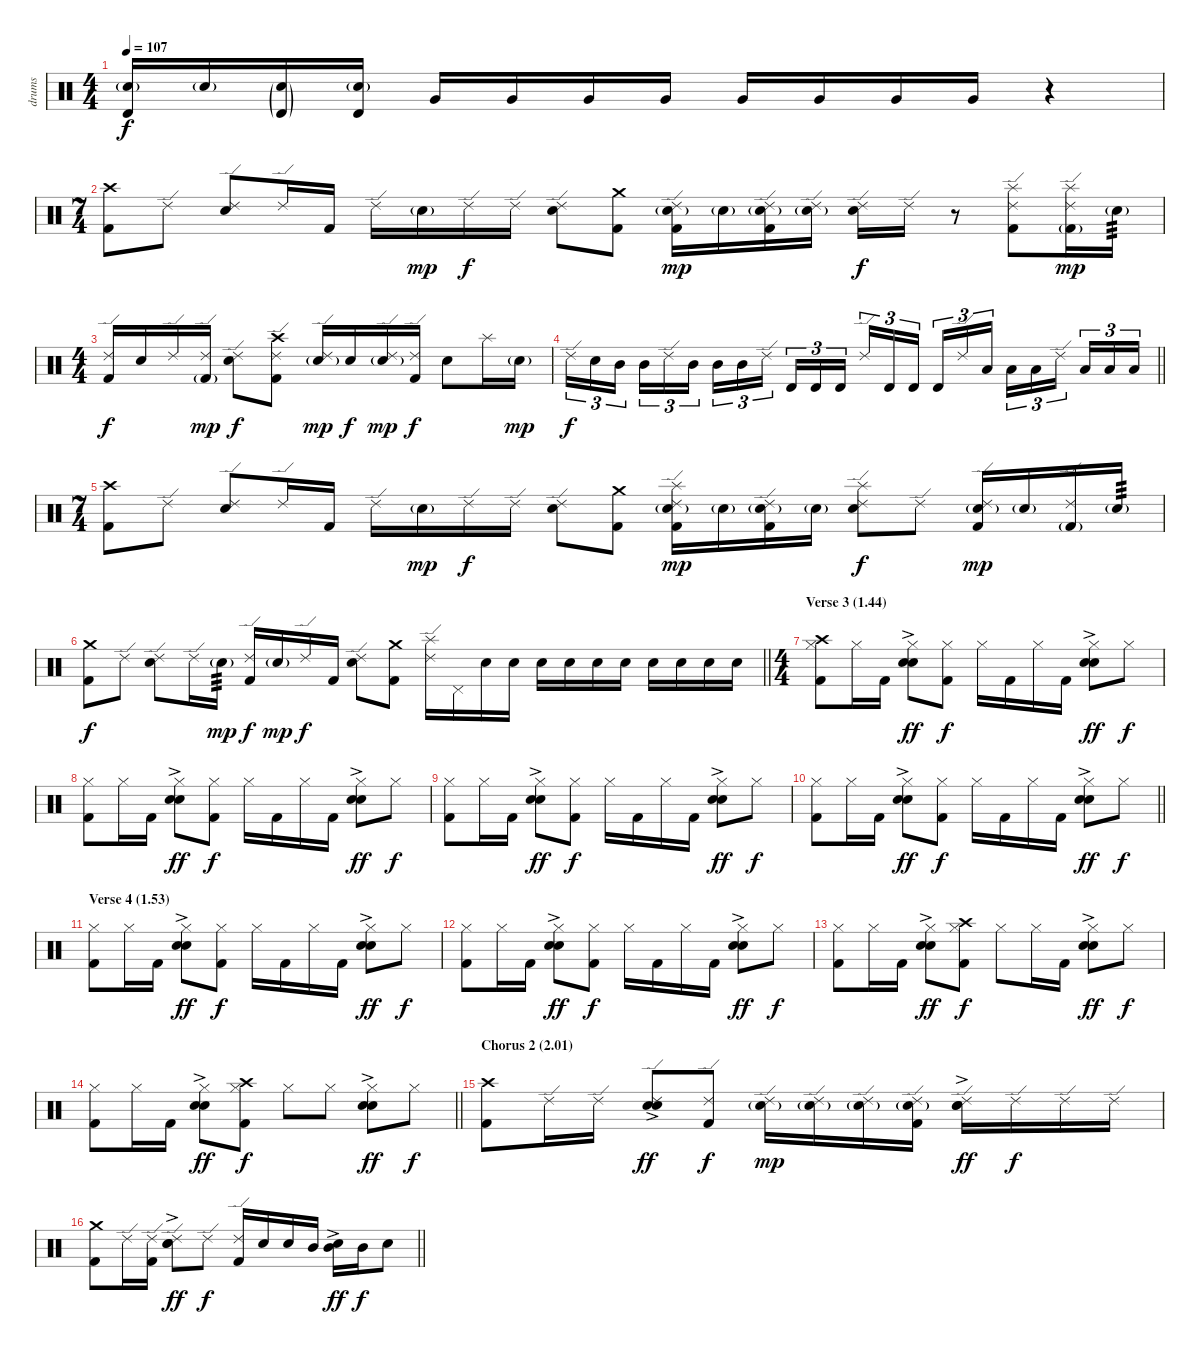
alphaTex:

\track ("drums" "drums") {instrument percussion}
\staff {score}
\articulation defaults
\ts (4 4)
\tempo 107
\clef neutral
\ks c
("Timbale high (hit)" "Electric Snare (hit)"{g}).16{dy f} "Electric Snare (hit)"{g}.16 ("Timbale high (hit)"{g} "Electric Snare (hit)"{g}).16 ("Timbale high (hit)" "Electric Snare (hit)"{g}).16 "Very Low Tom (hit)".16 "Very Low Tom (hit)".16 "Very Low Tom (hit)".16 "Very Low Tom (hit)".16 "Very Low Tom (hit)".16 "Very Low Tom (hit)".16 "Very Low Tom (hit)".16 "Very Low Tom (hit)".16 r.4 |
\ts (7 4)
("Crash high (hit)" "Kick (hit) 2").8 "Ride (edge) 2".8 ("Ride (edge) 2" "Electric Snare (hit)").8 "Ride (edge) 2".16 "Kick (hit) 2".16 "Ride (edge) 2".16 "Electric Snare (hit)"{g}.16{dy mp} "Ride (edge) 2".16{dy f} "Ride (edge) 2".16 ("Ride (edge) 2" "Electric Snare (hit)").8 ("Crash medium (hit)" "Kick (hit) 2").8 ("Ride (edge) 2" "Electric Snare (hit)"{g} "Kick (hit) 2").16{dy mp} "Electric Snare (hit)"{g}.16 ("Ride (edge) 2" "Electric Snare (hit)"{g} "Kick (hit) 2").16 ("Ride (edge) 2" "Electric Snare (hit)"{g}).16 ("Ride (edge) 2" "Electric Snare (hit)").16{dy f} "Ride (edge) 2".16 r.8 ("Ride (edge) 2" "Splash (hit)" "Kick (hit) 2").8 ("Ride (edge) 2" "Splash (hit)" "Kick (hit) 2"{g}).16{dy mp} "Electric Snare (hit)"{g}.16{tp 3} |
\ts (4 4)
("Ride (edge) 2" "Kick (hit) 2").16{dy f} "Electric Snare (hit)".16 "Ride (edge) 2".16 ("Ride (edge) 2" "Kick (hit) 2"{g}).16{dy mp} ("Ride (edge) 2" "Electric Snare (hit)").8{dy f} ("Ride (edge) 2" "Crash high (hit)" "Kick (hit) 2").8 ("Ride (edge) 2" "Electric Snare (hit)"{g}).16{dy mp} "Electric Snare (hit)".16{dy f} ("Ride (edge) 2" "Electric Snare (hit)"{g}).16{dy mp} ("Ride (edge) 2" "Kick (hit) 2").16{dy f} "Electric Snare (hit)".8 "Splash (hit)".16 "Electric Snare (hit)"{g}.16{dy mp} |
\barLineRight lightlight "Ride (edge) 2".16{tu (3 2) dy f} "Electric Snare (hit)".16{tu (3 2)} "Mid Tom (hit)".16{tu (3 2) beam splitsecondary} "Mid Tom (hit)".16{tu (3 2)} "Ride (edge) 2".16{tu (3 2)} "Mid Tom (hit)".16{tu (3 2)} "Mid Tom (hit)".16{tu (3 2)} "Mid Tom (hit)".16{tu (3 2)} "Ride (edge) 2".16{tu (3 2) beam splitsecondary} "Timbale high (hit)".16{tu (3 2)} "Timbale high (hit)".16{tu (3 2)} "Timbale high (hit)".16{tu (3 2)} "Ride (edge) 2".16{tu (3 2)} "Timbale high (hit)".16{tu (3 2)} "Timbale high (hit)".16{tu (3 2) beam splitsecondary} "Timbale high (hit)".16{tu (3 2)} "Ride (edge) 2".16{tu (3 2)} "Low Floor Tom (hit)".16{tu (3 2)} "Low Floor Tom (hit)".16{tu (3 2)} "Low Floor Tom (hit)".16{tu (3 2)} "Ride (edge) 2".16{tu (3 2) beam splitsecondary} "Low Floor Tom (hit)".16{tu (3 2)} "Low Floor Tom (hit)".16{tu (3 2)} "Low Floor Tom (hit)".16{tu (3 2)}
|
\ts (7 4)
("Crash high (hit)" "Kick (hit) 2").8 "Ride (edge) 2".8 ("Ride (edge) 2" "Electric Snare (hit)").8 "Ride (edge) 2".16 "Kick (hit) 2".16 "Ride (edge) 2".16 "Electric Snare (hit)"{g}.16{dy mp} "Ride (edge) 2".16{dy f} "Ride (edge) 2".16 ("Ride (edge) 2" "Electric Snare (hit)").8 ("Crash medium (hit)" "Kick (hit) 2").8 ("Ride (edge) 2" "Splash (hit)" "Electric Snare (hit)"{g} "Kick (hit) 2").16{dy mp} "Electric Snare (hit)"{g}.16 ("Ride (edge) 2" "Electric Snare (hit)"{g} "Kick (hit) 2").16 "Electric Snare (hit)"{g}.16 ("Ride (edge) 2" "Splash (hit)" "Electric Snare (hit)").8{dy f} "Ride (edge) 2".8 ("Ride (edge) 2" "Electric Snare (hit)"{g} "Kick (hit) 2").16{dy mp} "Electric Snare (hit)"{g}.16 ("Ride (edge) 2" "Kick (hit) 2"{g}).16 "Electric Snare (hit)"{g}.16{tp 3} |
\barLineRight lightlight
("Crash medium (hit)" "Kick (hit) 2").8{dy f} "Ride (edge) 2".8 ("Ride (edge) 2" "Electric Snare (hit)").8 "Ride (edge) 2".16 "Electric Snare (hit)"{g}.16{tp 3 dy mp} ("Ride (edge) 2" "Kick (hit) 2").16{dy f} "Electric Snare (hit)"{g}.16{dy mp} "Ride (edge) 2".16{dy f} "Kick (hit) 2".16 ("Ride (edge) 2" "Electric Snare (hit)").8 ("Crash medium (hit)" "Kick (hit) 2").8 ("Ride (edge) 2" "Splash (hit)").16 "Pedal Hi-Hat (hit)".16 "Electric Snare (hit)".16 "Electric Snare (hit)".16 "Electric Snare (hit)".16 "Electric Snare (hit)".16 "Electric Snare (hit)".16 "Electric Snare (hit)".16 "Electric Snare (hit)".16 "Electric Snare (hit)".16 "Electric Snare (hit)".16 "Electric Snare (hit)".16 |
\ts (4 4)
\section ("" "Verse 3 (1.44)")
("Hi-Hat (closed)" "Crash high (hit)" "Kick (hit) 2").8 "Hi-Hat (closed)".16 "Kick (hit) 2".16 ("Hi-Hat (closed)" "Hand Clap (hit)"{ac} "Electric Snare (hit)").8{dy ff} ("Hi-Hat (closed)" "Kick (hit) 2").8{dy f} "Hi-Hat (closed)".16 "Kick (hit) 2".16 "Hi-Hat (closed)".16 "Kick (hit) 2".16 ("Hi-Hat (closed)" "Hand Clap (hit)"{ac} "Electric Snare (hit)").8{dy ff} "Hi-Hat (closed)".8{dy f} |
("Hi-Hat (closed)" "Kick (hit) 2").8 "Hi-Hat (closed)".16 "Kick (hit) 2".16 ("Hi-Hat (closed)" "Hand Clap (hit)"{ac} "Electric Snare (hit)").8{dy ff} ("Hi-Hat (closed)" "Kick (hit) 2").8{dy f} "Hi-Hat (closed)".16 "Kick (hit) 2".16 "Hi-Hat (closed)".16 "Kick (hit) 2".16 ("Hi-Hat (closed)" "Hand Clap (hit)"{ac} "Electric Snare (hit)").8{dy ff} "Hi-Hat (closed)".8{dy f} |
("Hi-Hat (closed)" "Kick (hit) 2").8 "Hi-Hat (closed)".16 "Kick (hit) 2".16 ("Hi-Hat (closed)" "Hand Clap (hit)"{ac} "Electric Snare (hit)").8{dy ff} ("Hi-Hat (closed)" "Kick (hit) 2").8{dy f} "Hi-Hat (closed)".16 "Kick (hit) 2".16 "Hi-Hat (closed)".16 "Kick (hit) 2".16 ("Hi-Hat (closed)" "Hand Clap (hit)"{ac} "Electric Snare (hit)").8{dy ff} "Hi-Hat (closed)".8{dy f} |
\barLineRight lightlight
("Hi-Hat (closed)" "Kick (hit) 2").8 "Hi-Hat (closed)".16 "Kick (hit) 2".16 ("Hi-Hat (closed)" "Hand Clap (hit)"{ac} "Electric Snare (hit)").8{dy ff} ("Hi-Hat (closed)" "Kick (hit) 2").8{dy f} "Hi-Hat (closed)".16 "Kick (hit) 2".16 "Hi-Hat (closed)".16 "Kick (hit) 2".16 ("Hi-Hat (closed)" "Hand Clap (hit)"{ac} "Electric Snare (hit)").8{dy ff} "Hi-Hat (closed)".8{dy f} |
\section ("" "Verse 4 (1.53)")
("Hi-Hat (closed)" "Kick (hit) 2").8 "Hi-Hat (closed)".16 "Kick (hit) 2".16 ("Hi-Hat (closed)" "Hand Clap (hit)"{ac} "Electric Snare (hit)").8{dy ff} ("Hi-Hat (closed)" "Kick (hit) 2").8{dy f} "Hi-Hat (closed)".16 "Kick (hit) 2".16 "Hi-Hat (closed)".16 "Kick (hit) 2".16 ("Hi-Hat (closed)" "Hand Clap (hit)"{ac} "Electric Snare (hit)").8{dy ff} "Hi-Hat (closed)".8{dy f} |
("Hi-Hat (closed)" "Kick (hit) 2").8 "Hi-Hat (closed)".16 "Kick (hit) 2".16 ("Hi-Hat (closed)" "Hand Clap (hit)"{ac} "Electric Snare (hit)").8{dy ff} ("Hi-Hat (closed)" "Kick (hit) 2").8{dy f} "Hi-Hat (closed)".16 "Kick (hit) 2".16 "Hi-Hat (closed)".16 "Kick (hit) 2".16 ("Hi-Hat (closed)" "Hand Clap (hit)"{ac} "Electric Snare (hit)").8{dy ff} "Hi-Hat (closed)".8{dy f} |
("Hi-Hat (closed)" "Kick (hit) 2").8 "Hi-Hat (closed)".16 "Kick (hit) 2".16 ("Hi-Hat (closed)" "Hand Clap (hit)"{ac} "Electric Snare (hit)").8{dy ff} ("Hi-Hat (closed)" "Crash high (hit)" "Kick (hit) 2").8{dy f} "Hi-Hat (closed)".8 "Hi-Hat (closed)".16 "Kick (hit) 2".16 ("Hi-Hat (closed)" "Hand Clap (hit)"{ac} "Electric Snare (hit)").8{dy ff} "Hi-Hat (closed)".8{dy f} |
\barLineRight lightlight
("Hi-Hat (closed)" "Kick (hit) 2").8 "Hi-Hat (closed)".16 "Kick (hit) 2".16 ("Hi-Hat (closed)" "Hand Clap (hit)"{ac} "Electric Snare (hit)").8{dy ff} ("Hi-Hat (closed)" "Crash high (hit)" "Kick (hit) 2").8{dy f} "Hi-Hat (closed)".8 "Hi-Hat (closed)".8 ("Hi-Hat (closed)" "Hand Clap (hit)"{ac} "Electric Snare (hit)").8{dy ff} "Hi-Hat (closed)".8{dy f} |
\section ("" "Chorus 2 (2.01)")
("Crash high (hit)" "Kick (hit) 2").8 "Ride (edge) 2".16 "Ride (edge) 2".16 ("Ride (edge) 2" "Hand Clap (hit)"{ac} "Electric Snare (hit)").8{dy ff} ("Ride (edge) 2" "Kick (hit) 2").8{dy f} ("Ride (edge) 2" "Electric Snare (hit)"{g}).16{dy mp} ("Ride (edge) 2" "Electric Snare (hit)"{g}).16 ("Ride (edge) 2" "Electric Snare (hit)"{g}).16 ("Ride (edge) 2" "Electric Snare (hit)"{g} "Kick (hit) 2").16 ("Ride (edge) 2" "Hand Clap (hit)"{ac} "Electric Snare (hit)").16{dy ff} "Ride (edge) 2".16{dy f} "Ride (edge) 2".16 "Ride (edge) 2".16 |
\barLineRight lightlight
("Crash medium (hit)" "Kick (hit) 2").8 "Ride (edge) 2".16 ("Ride (edge) 2" "Kick (hit) 2").16 ("Ride (edge) 2" "Hand Clap (hit)"{ac} "Electric Snare (hit)").8{dy ff} "Ride (edge) 2".8{dy f} ("Ride (edge) 2" "Kick (hit) 2").16 "Electric Snare (hit)".16 "Electric Snare (hit)".16 "Mid Tom (hit)".16 ("Hand Clap (hit)"{ac} "Mid Tom (hit)").16{dy ff} "Mid Tom (hit)".16{dy f} "Electric Snare (hit)".8
